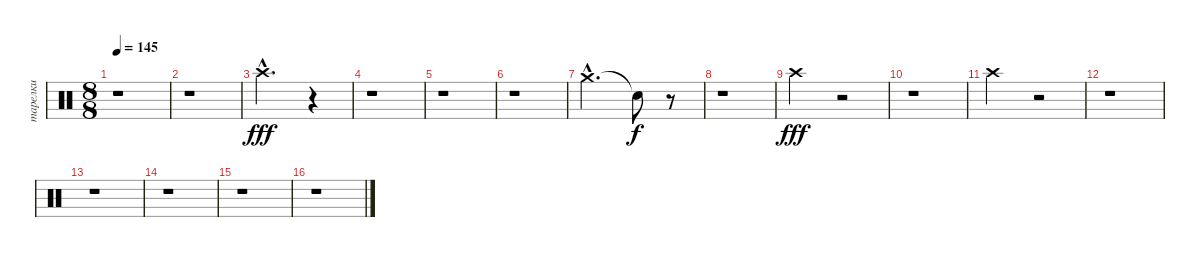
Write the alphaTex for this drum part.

\track ("тарелки" "тарелки") {instrument percussion}
\staff {score}
\articulation defaults
\ts (8 8)
\tempo 145
\clef neutral
\ks c
r.1{dy fff} |
r.1 |
"Crash high (hit)"{hac}.2{d} r.4 |
r.1 |
r.1 |
r.1 |
"Crash medium (hit)"{hac}.2{d} "Snare (hit)"{t}.8{dy f} r.8 |
r.1 |
"Crash high (hit)".2{dy fff} r.2 |
r.1 |
"Crash high (hit)".2 r.2 |
r.1 |
r.1 |
r.1 |
r.1 |
r.1
